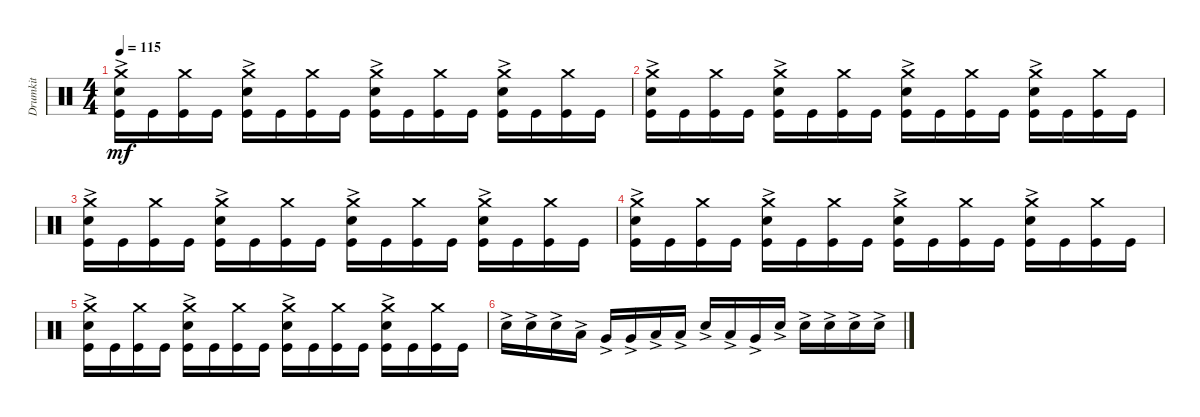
\track ("Drumkit" "Drumkit") {instrument percussion}
\staff {score}
\articulation defaults
\ts (4 4)
\tempo 115
\clef neutral
\ks c
("Kick (hit)" "Snare (hit) 2"{ac} "Crash medium (hit)").16{dy mf} "Kick (hit)".16 ("Kick (hit)" "Crash medium (hit)").16 "Kick (hit)".16 ("Kick (hit)" "Snare (hit) 2"{ac} "Crash medium (hit)").16 "Kick (hit)".16 ("Kick (hit)" "Crash medium (hit)").16 "Kick (hit)".16 ("Kick (hit)" "Snare (hit) 2"{ac} "Crash medium (hit)").16 "Kick (hit)".16 ("Kick (hit)" "Crash medium (hit)").16 "Kick (hit)".16 ("Kick (hit)" "Snare (hit) 2"{ac} "Crash medium (hit)").16 "Kick (hit)".16 ("Kick (hit)" "Crash medium (hit)").16 "Kick (hit)".16 |
("Kick (hit)" "Snare (hit) 2"{ac} "Crash medium (hit)").16 "Kick (hit)".16 ("Kick (hit)" "Crash medium (hit)").16 "Kick (hit)".16 ("Kick (hit)" "Snare (hit) 2"{ac} "Crash medium (hit)").16 "Kick (hit)".16 ("Kick (hit)" "Crash medium (hit)").16 "Kick (hit)".16 ("Kick (hit)" "Snare (hit) 2"{ac} "Crash medium (hit)").16 "Kick (hit)".16 ("Kick (hit)" "Crash medium (hit)").16 "Kick (hit)".16 ("Kick (hit)" "Snare (hit) 2"{ac} "Crash medium (hit)").16 "Kick (hit)".16 ("Kick (hit)" "Crash medium (hit)").16 "Kick (hit)".16 |
("Kick (hit)" "Snare (hit) 2"{ac} "Crash medium (hit)").16 "Kick (hit)".16 ("Kick (hit)" "Crash medium (hit)").16 "Kick (hit)".16 ("Kick (hit)" "Snare (hit) 2"{ac} "Crash medium (hit)").16 "Kick (hit)".16 ("Kick (hit)" "Crash medium (hit)").16 "Kick (hit)".16 ("Kick (hit)" "Snare (hit) 2"{ac} "Crash medium (hit)").16 "Kick (hit)".16 ("Kick (hit)" "Crash medium (hit)").16 "Kick (hit)".16 ("Kick (hit)" "Snare (hit) 2"{ac} "Crash medium (hit)").16 "Kick (hit)".16 ("Kick (hit)" "Crash medium (hit)").16 "Kick (hit)".16 |
("Kick (hit)" "Snare (hit) 2"{ac} "Crash medium (hit)").16 "Kick (hit)".16 ("Kick (hit)" "Crash medium (hit)").16 "Kick (hit)".16 ("Kick (hit)" "Snare (hit) 2"{ac} "Crash medium (hit)").16 "Kick (hit)".16 ("Kick (hit)" "Crash medium (hit)").16 "Kick (hit)".16 ("Kick (hit)" "Snare (hit) 2"{ac} "Crash medium (hit)").16 "Kick (hit)".16 ("Kick (hit)" "Crash medium (hit)").16 "Kick (hit)".16 ("Kick (hit)" "Snare (hit) 2"{ac} "Crash medium (hit)").16 "Kick (hit)".16 ("Kick (hit)" "Crash medium (hit)").16 "Kick (hit)".16 |
("Kick (hit)" "Snare (hit) 2"{ac} "Crash medium (hit)").16 "Kick (hit)".16 ("Kick (hit)" "Crash medium (hit)").16 "Kick (hit)".16 ("Kick (hit)" "Snare (hit) 2"{ac} "Crash medium (hit)").16 "Kick (hit)".16 ("Kick (hit)" "Crash medium (hit)").16 "Kick (hit)".16 ("Kick (hit)" "Snare (hit) 2"{ac} "Crash medium (hit)").16 "Kick (hit)".16 ("Kick (hit)" "Crash medium (hit)").16 "Kick (hit)".16 ("Kick (hit)" "Snare (hit) 2"{ac} "Crash medium (hit)").16 "Kick (hit)".16 ("Kick (hit)" "Crash medium (hit)").16 "Kick (hit)".16 |
"Snare (hit) 2"{ac}.16 "Snare (hit) 2"{ac}.16 "Snare (hit) 2"{ac}.16 "Low Tom (hit)"{ac}.16 "Very Low Tom (hit)"{ac}.16 "Very Low Tom (hit)"{ac}.16 "Low Floor Tom (hit)"{ac}.16 "Low Floor Tom (hit)"{ac}.16 "Snare (hit) 2"{ac}.16 "Low Tom (hit)"{ac}.16 "Very Low Tom (hit)"{ac}.16 "Snare (hit) 2"{ac}.16 "Snare (hit) 2"{ac}.16 "Snare (hit) 2"{ac}.16 "Snare (hit) 2"{ac}.16 "Snare (hit) 2"{ac}.16
